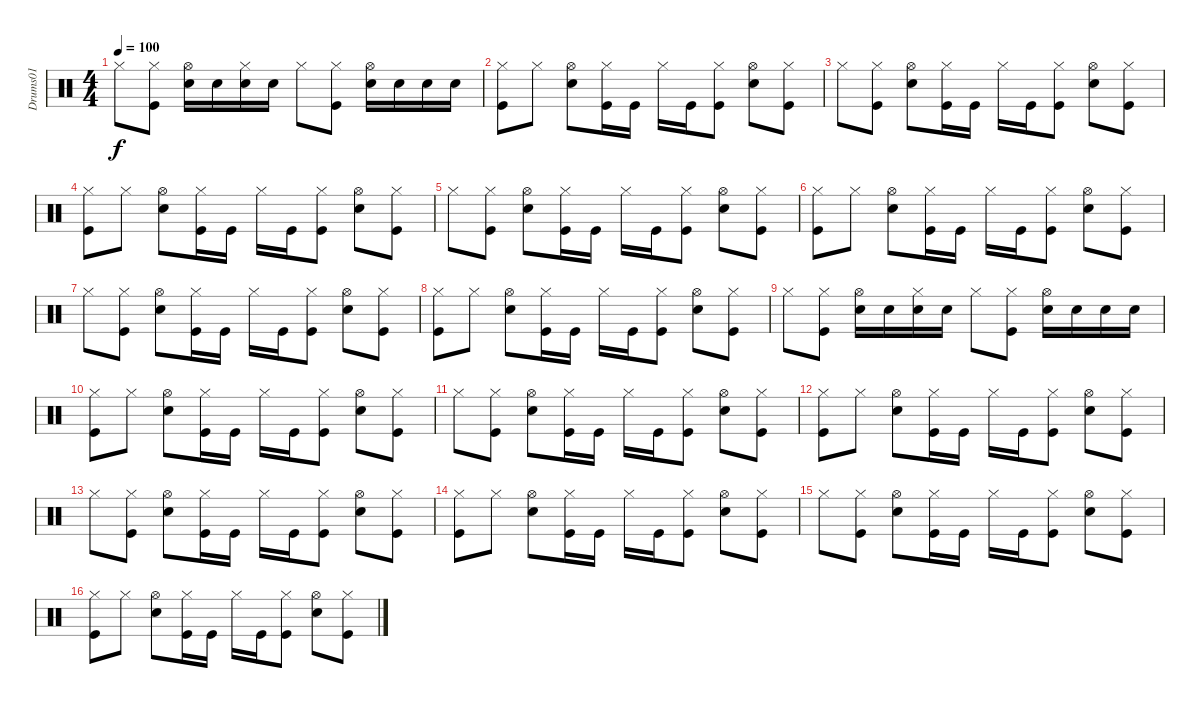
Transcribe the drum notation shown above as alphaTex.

\track ("Drums01" "Drums01") {instrument percussion}
\staff {score}
\articulation defaults
\ts (4 4)
\tempo 100
\clef neutral
\ks c "Hi-Hat (closed)".8{dy f}
("Hi-Hat (closed)" "Kick (hit)").8 ("Hi-Hat (open)" "Snare (hit) 2").16 "Snare (hit) 2".16 ("Hi-Hat (closed)" "Snare (hit) 2").16 "Snare (hit) 2".16 "Hi-Hat (closed)".8 ("Hi-Hat (closed)" "Kick (hit)").8 ("Hi-Hat (open)" "Snare (hit) 2").16 "Snare (hit) 2".16 "Snare (hit) 2".16 "Snare (hit) 2".16 |
("Hi-Hat (closed)" "Kick (hit)").8 "Hi-Hat (closed)".8 ("Hi-Hat (open)" "Snare (hit) 2").8 ("Hi-Hat (closed)" "Kick (hit)").16 "Kick (hit)".16 "Hi-Hat (closed)".16 "Kick (hit)".16 ("Hi-Hat (closed)" "Kick (hit)").8 ("Hi-Hat (open)" "Snare (hit) 2").8 ("Hi-Hat (closed)" "Kick (hit)").8 |
"Hi-Hat (closed)".8 ("Hi-Hat (closed)" "Kick (hit)").8 ("Hi-Hat (open)" "Snare (hit) 2").8 ("Hi-Hat (closed)" "Kick (hit)").16 "Kick (hit)".16 "Hi-Hat (closed)".16 "Kick (hit)".16 ("Hi-Hat (closed)" "Kick (hit)").8 ("Hi-Hat (open)" "Snare (hit) 2").8 ("Hi-Hat (closed)" "Kick (hit)").8 |
("Hi-Hat (closed)" "Kick (hit)").8 "Hi-Hat (closed)".8 ("Hi-Hat (open)" "Snare (hit) 2").8 ("Hi-Hat (closed)" "Kick (hit)").16 "Kick (hit)".16 "Hi-Hat (closed)".16 "Kick (hit)".16 ("Hi-Hat (closed)" "Kick (hit)").8 ("Hi-Hat (open)" "Snare (hit) 2").8 ("Hi-Hat (closed)" "Kick (hit)").8 |
"Hi-Hat (closed)".8 ("Hi-Hat (closed)" "Kick (hit)").8 ("Hi-Hat (open)" "Snare (hit) 2").8 ("Hi-Hat (closed)" "Kick (hit)").16 "Kick (hit)".16 "Hi-Hat (closed)".16 "Kick (hit)".16 ("Hi-Hat (closed)" "Kick (hit)").8 ("Hi-Hat (open)" "Snare (hit) 2").8 ("Hi-Hat (closed)" "Kick (hit)").8 |
("Hi-Hat (closed)" "Kick (hit)").8 "Hi-Hat (closed)".8 ("Hi-Hat (open)" "Snare (hit) 2").8 ("Hi-Hat (closed)" "Kick (hit)").16 "Kick (hit)".16 "Hi-Hat (closed)".16 "Kick (hit)".16 ("Hi-Hat (closed)" "Kick (hit)").8 ("Hi-Hat (open)" "Snare (hit) 2").8 ("Hi-Hat (closed)" "Kick (hit)").8 |
"Hi-Hat (closed)".8 ("Hi-Hat (closed)" "Kick (hit)").8 ("Hi-Hat (open)" "Snare (hit) 2").8 ("Hi-Hat (closed)" "Kick (hit)").16 "Kick (hit)".16 "Hi-Hat (closed)".16 "Kick (hit)".16 ("Hi-Hat (closed)" "Kick (hit)").8 ("Hi-Hat (open)" "Snare (hit) 2").8 ("Hi-Hat (closed)" "Kick (hit)").8 |
("Hi-Hat (closed)" "Kick (hit)").8 "Hi-Hat (closed)".8 ("Hi-Hat (open)" "Snare (hit) 2").8 ("Hi-Hat (closed)" "Kick (hit)").16 "Kick (hit)".16 "Hi-Hat (closed)".16 "Kick (hit)".16 ("Hi-Hat (closed)" "Kick (hit)").8 ("Hi-Hat (open)" "Snare (hit) 2").8 ("Hi-Hat (closed)" "Kick (hit)").8 |
"Hi-Hat (closed)".8 ("Hi-Hat (closed)" "Kick (hit)").8 ("Hi-Hat (open)" "Snare (hit) 2").16 "Snare (hit) 2".16 ("Hi-Hat (closed)" "Snare (hit) 2").16 "Snare (hit) 2".16 "Hi-Hat (closed)".8 ("Hi-Hat (closed)" "Kick (hit)").8 ("Hi-Hat (open)" "Snare (hit) 2").16 "Snare (hit) 2".16 "Snare (hit) 2".16 "Snare (hit) 2".16 |
("Hi-Hat (closed)" "Kick (hit)").8 "Hi-Hat (closed)".8 ("Hi-Hat (open)" "Snare (hit) 2").8 ("Hi-Hat (closed)" "Kick (hit)").16 "Kick (hit)".16 "Hi-Hat (closed)".16 "Kick (hit)".16 ("Hi-Hat (closed)" "Kick (hit)").8 ("Hi-Hat (open)" "Snare (hit) 2").8 ("Hi-Hat (closed)" "Kick (hit)").8 |
"Hi-Hat (closed)".8 ("Hi-Hat (closed)" "Kick (hit)").8 ("Hi-Hat (open)" "Snare (hit) 2").8 ("Hi-Hat (closed)" "Kick (hit)").16 "Kick (hit)".16 "Hi-Hat (closed)".16 "Kick (hit)".16 ("Hi-Hat (closed)" "Kick (hit)").8 ("Hi-Hat (open)" "Snare (hit) 2").8 ("Hi-Hat (closed)" "Kick (hit)").8 |
("Hi-Hat (closed)" "Kick (hit)").8 "Hi-Hat (closed)".8 ("Hi-Hat (open)" "Snare (hit) 2").8 ("Hi-Hat (closed)" "Kick (hit)").16 "Kick (hit)".16 "Hi-Hat (closed)".16 "Kick (hit)".16 ("Hi-Hat (closed)" "Kick (hit)").8 ("Hi-Hat (open)" "Snare (hit) 2").8 ("Hi-Hat (closed)" "Kick (hit)").8 |
"Hi-Hat (closed)".8 ("Hi-Hat (closed)" "Kick (hit)").8 ("Hi-Hat (open)" "Snare (hit) 2").8 ("Hi-Hat (closed)" "Kick (hit)").16 "Kick (hit)".16 "Hi-Hat (closed)".16 "Kick (hit)".16 ("Hi-Hat (closed)" "Kick (hit)").8 ("Hi-Hat (open)" "Snare (hit) 2").8 ("Hi-Hat (closed)" "Kick (hit)").8 |
("Hi-Hat (closed)" "Kick (hit)").8 "Hi-Hat (closed)".8 ("Hi-Hat (open)" "Snare (hit) 2").8 ("Hi-Hat (closed)" "Kick (hit)").16 "Kick (hit)".16 "Hi-Hat (closed)".16 "Kick (hit)".16 ("Hi-Hat (closed)" "Kick (hit)").8 ("Hi-Hat (open)" "Snare (hit) 2").8 ("Hi-Hat (closed)" "Kick (hit)").8 |
"Hi-Hat (closed)".8 ("Hi-Hat (closed)" "Kick (hit)").8 ("Hi-Hat (open)" "Snare (hit) 2").8 ("Hi-Hat (closed)" "Kick (hit)").16 "Kick (hit)".16 "Hi-Hat (closed)".16 "Kick (hit)".16 ("Hi-Hat (closed)" "Kick (hit)").8 ("Hi-Hat (open)" "Snare (hit) 2").8 ("Hi-Hat (closed)" "Kick (hit)").8 |
("Hi-Hat (closed)" "Kick (hit)").8 "Hi-Hat (closed)".8 ("Hi-Hat (open)" "Snare (hit) 2").8 ("Hi-Hat (closed)" "Kick (hit)").16 "Kick (hit)".16 "Hi-Hat (closed)".16 "Kick (hit)".16 ("Hi-Hat (closed)" "Kick (hit)").8 ("Hi-Hat (open)" "Snare (hit) 2").8 ("Hi-Hat (closed)" "Kick (hit)").8
